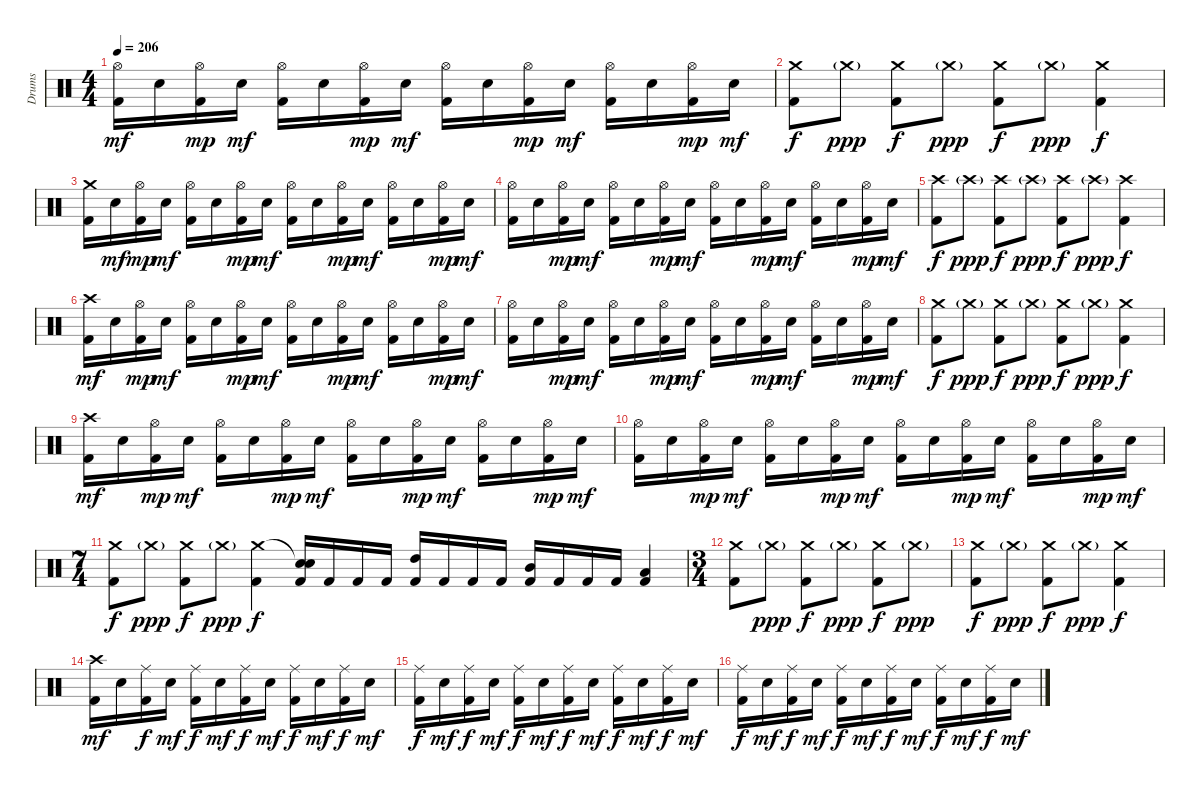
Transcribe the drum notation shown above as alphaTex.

\track ("Drums" "Drums") {instrument percussion}
\staff {score}
\articulation defaults
\ts (4 4)
\tempo 206
\clef neutral
\ks c
("Hi-Hat (open)" "Kick (hit) 2").16{dy mf} "Electric Snare (hit)".16 ("Hi-Hat (open)" "Kick (hit) 2").16{dy mp} "Electric Snare (hit)".16{dy mf} ("Hi-Hat (open)" "Kick (hit) 2").16 "Electric Snare (hit)".16 ("Hi-Hat (open)" "Kick (hit) 2").16{dy mp} "Electric Snare (hit)".16{dy mf} ("Hi-Hat (open)" "Kick (hit) 2").16 "Electric Snare (hit)".16 ("Hi-Hat (open)" "Kick (hit) 2").16{dy mp} "Electric Snare (hit)".16{dy mf} ("Hi-Hat (open)" "Kick (hit) 2").16 "Electric Snare (hit)".16 ("Hi-Hat (open)" "Kick (hit) 2").16{dy mp} "Electric Snare (hit)".16{dy mf} |
("Crash medium (hit)" "Kick (hit) 2").8{dy f} "Crash medium (hit)"{g}.8{dy ppp} ("Crash medium (hit)" "Kick (hit) 2").8{dy f} "Crash medium (hit)"{g}.8{dy ppp} ("Crash medium (hit)" "Kick (hit) 2").8{dy f} "Crash medium (hit)"{g}.8{dy ppp} ("Crash medium (hit)" "Kick (hit) 2").4{dy f} |
("Crash medium (hit)" "Kick (hit) 2").16 "Electric Snare (hit)".16{dy mf} ("Hi-Hat (open)" "Kick (hit) 2").16{dy mp} "Electric Snare (hit)".16{dy mf} ("Hi-Hat (open)" "Kick (hit) 2").16 "Electric Snare (hit)".16 ("Hi-Hat (open)" "Kick (hit) 2").16{dy mp} "Electric Snare (hit)".16{dy mf} ("Hi-Hat (open)" "Kick (hit) 2").16 "Electric Snare (hit)".16 ("Hi-Hat (open)" "Kick (hit) 2").16{dy mp} "Electric Snare (hit)".16{dy mf} ("Hi-Hat (open)" "Kick (hit) 2").16 "Electric Snare (hit)".16 ("Hi-Hat (open)" "Kick (hit) 2").16{dy mp} "Electric Snare (hit)".16{dy mf} |
("Hi-Hat (open)" "Kick (hit) 2").16 "Electric Snare (hit)".16 ("Hi-Hat (open)" "Kick (hit) 2").16{dy mp} "Electric Snare (hit)".16{dy mf} ("Hi-Hat (open)" "Kick (hit) 2").16 "Electric Snare (hit)".16 ("Hi-Hat (open)" "Kick (hit) 2").16{dy mp} "Electric Snare (hit)".16{dy mf} ("Hi-Hat (open)" "Kick (hit) 2").16 "Electric Snare (hit)".16 ("Hi-Hat (open)" "Kick (hit) 2").16{dy mp} "Electric Snare (hit)".16{dy mf} ("Hi-Hat (open)" "Kick (hit) 2").16 "Electric Snare (hit)".16 ("Hi-Hat (open)" "Kick (hit) 2").16{dy mp} "Electric Snare (hit)".16{dy mf} |
("Crash high (hit)" "Kick (hit) 2").8{dy f} "Crash high (hit)"{g}.8{dy ppp} ("Crash high (hit)" "Kick (hit) 2").8{dy f} "Crash high (hit)"{g}.8{dy ppp} ("Crash high (hit)" "Kick (hit) 2").8{dy f} "Crash high (hit)"{g}.8{dy ppp} ("Crash high (hit)" "Kick (hit) 2").4{dy f} |
("Crash high (hit)" "Kick (hit) 2").16{dy mf} "Electric Snare (hit)".16 ("Hi-Hat (open)" "Kick (hit) 2").16{dy mp} "Electric Snare (hit)".16{dy mf} ("Hi-Hat (open)" "Kick (hit) 2").16 "Electric Snare (hit)".16 ("Hi-Hat (open)" "Kick (hit) 2").16{dy mp} "Electric Snare (hit)".16{dy mf} ("Hi-Hat (open)" "Kick (hit) 2").16 "Electric Snare (hit)".16 ("Hi-Hat (open)" "Kick (hit) 2").16{dy mp} "Electric Snare (hit)".16{dy mf} ("Hi-Hat (open)" "Kick (hit) 2").16 "Electric Snare (hit)".16 ("Hi-Hat (open)" "Kick (hit) 2").16{dy mp} "Electric Snare (hit)".16{dy mf} |
("Hi-Hat (open)" "Kick (hit) 2").16 "Electric Snare (hit)".16 ("Hi-Hat (open)" "Kick (hit) 2").16{dy mp} "Electric Snare (hit)".16{dy mf} ("Hi-Hat (open)" "Kick (hit) 2").16 "Electric Snare (hit)".16 ("Hi-Hat (open)" "Kick (hit) 2").16{dy mp} "Electric Snare (hit)".16{dy mf} ("Hi-Hat (open)" "Kick (hit) 2").16 "Electric Snare (hit)".16 ("Hi-Hat (open)" "Kick (hit) 2").16{dy mp} "Electric Snare (hit)".16{dy mf} ("Hi-Hat (open)" "Kick (hit) 2").16 "Electric Snare (hit)".16 ("Hi-Hat (open)" "Kick (hit) 2").16{dy mp} "Electric Snare (hit)".16{dy mf} |
("Crash medium (hit)" "Kick (hit) 2").8{dy f} "Crash medium (hit)"{g}.8{dy ppp} ("Crash medium (hit)" "Kick (hit) 2").8{dy f} "Crash medium (hit)"{g}.8{dy ppp} ("Crash medium (hit)" "Kick (hit) 2").8{dy f} "Crash medium (hit)"{g}.8{dy ppp} ("Crash medium (hit)" "Kick (hit) 2").4{dy f} |
("Crash high (hit)" "Kick (hit) 2").16{dy mf} "Electric Snare (hit)".16 ("Hi-Hat (open)" "Kick (hit) 2").16{dy mp} "Electric Snare (hit)".16{dy mf} ("Hi-Hat (open)" "Kick (hit) 2").16 "Electric Snare (hit)".16 ("Hi-Hat (open)" "Kick (hit) 2").16{dy mp} "Electric Snare (hit)".16{dy mf} ("Hi-Hat (open)" "Kick (hit) 2").16 "Electric Snare (hit)".16 ("Hi-Hat (open)" "Kick (hit) 2").16{dy mp} "Electric Snare (hit)".16{dy mf} ("Hi-Hat (open)" "Kick (hit) 2").16 "Electric Snare (hit)".16 ("Hi-Hat (open)" "Kick (hit) 2").16{dy mp} "Electric Snare (hit)".16{dy mf} |
("Hi-Hat (open)" "Kick (hit) 2").16 "Electric Snare (hit)".16 ("Hi-Hat (open)" "Kick (hit) 2").16{dy mp} "Electric Snare (hit)".16{dy mf} ("Hi-Hat (open)" "Kick (hit) 2").16 "Electric Snare (hit)".16 ("Hi-Hat (open)" "Kick (hit) 2").16{dy mp} "Electric Snare (hit)".16{dy mf} ("Hi-Hat (open)" "Kick (hit) 2").16 "Electric Snare (hit)".16 ("Hi-Hat (open)" "Kick (hit) 2").16{dy mp} "Electric Snare (hit)".16{dy mf} ("Hi-Hat (open)" "Kick (hit) 2").16 "Electric Snare (hit)".16 ("Hi-Hat (open)" "Kick (hit) 2").16{dy mp} "Electric Snare (hit)".16{dy mf} |
\ts (7 4)
("Crash medium (hit)" "Kick (hit) 2").8{dy f} "Crash medium (hit)"{g}.8{dy ppp} ("Crash medium (hit)" "Kick (hit) 2").8{dy f} "Crash medium (hit)"{g}.8{dy ppp} ("Crash medium (hit)" "Kick (hit) 2").4{dy f} ("Snare (hit)"{t} "Electric Snare (hit)" "Kick (hit) 2").16 "Kick (hit) 2".16 "Kick (hit) 2".16 "Kick (hit) 2".16 ("High Tom (hit)" "Kick (hit) 2").16 "Kick (hit) 2".16 "Kick (hit) 2".16 "Kick (hit) 2".16 ("Mid Tom (hit)" "Kick (hit) 2").16 "Kick (hit) 2".16 "Kick (hit) 2".16 "Kick (hit) 2".16 ("Low Tom (hit)" "Kick (hit) 2").4 |
\ts (3 4)
("Crash medium (hit)" "Kick (hit) 2").8 "Crash medium (hit)"{g}.8{dy ppp} ("Crash medium (hit)" "Kick (hit) 2").8{dy f} "Crash medium (hit)"{g}.8{dy ppp} ("Crash medium (hit)" "Kick (hit) 2").8{dy f} "Crash medium (hit)"{g}.8{dy ppp} |
("Crash medium (hit)" "Kick (hit) 2").8{dy f} "Crash medium (hit)"{g}.8{dy ppp} ("Crash medium (hit)" "Kick (hit) 2").8{dy f} "Crash medium (hit)"{g}.8{dy ppp} ("Crash medium (hit)" "Kick (hit) 2").4{dy f} |
("Crash high (hit)" "Kick (hit) 2").16{dy mf} "Electric Snare (hit)".16 ("Ride (middle)" "Kick (hit) 2").16{dy f} "Electric Snare (hit)".16{dy mf} ("Ride (middle)" "Kick (hit) 2").16{dy f} "Electric Snare (hit)".16{dy mf} ("Ride (middle)" "Kick (hit) 2").16{dy f} "Electric Snare (hit)".16{dy mf} ("Ride (middle)" "Kick (hit) 2").16{dy f} "Electric Snare (hit)".16{dy mf} ("Ride (middle)" "Kick (hit) 2").16{dy f} "Electric Snare (hit)".16{dy mf} |
("Ride (middle)" "Kick (hit) 2").16{dy f} "Electric Snare (hit)".16{dy mf} ("Ride (middle)" "Kick (hit) 2").16{dy f} "Electric Snare (hit)".16{dy mf} ("Ride (middle)" "Kick (hit) 2").16{dy f} "Electric Snare (hit)".16{dy mf} ("Ride (middle)" "Kick (hit) 2").16{dy f} "Electric Snare (hit)".16{dy mf} ("Ride (middle)" "Kick (hit) 2").16{dy f} "Electric Snare (hit)".16{dy mf} ("Ride (middle)" "Kick (hit) 2").16{dy f} "Electric Snare (hit)".16{dy mf} |
("Ride (middle)" "Kick (hit) 2").16{dy f} "Electric Snare (hit)".16{dy mf} ("Ride (middle)" "Kick (hit) 2").16{dy f} "Electric Snare (hit)".16{dy mf} ("Ride (middle)" "Kick (hit) 2").16{dy f} "Electric Snare (hit)".16{dy mf} ("Ride (middle)" "Kick (hit) 2").16{dy f} "Electric Snare (hit)".16{dy mf} ("Ride (middle)" "Kick (hit) 2").16{dy f} "Electric Snare (hit)".16{dy mf} ("Ride (middle)" "Kick (hit) 2").16{dy f} "Electric Snare (hit)".16{dy mf}
